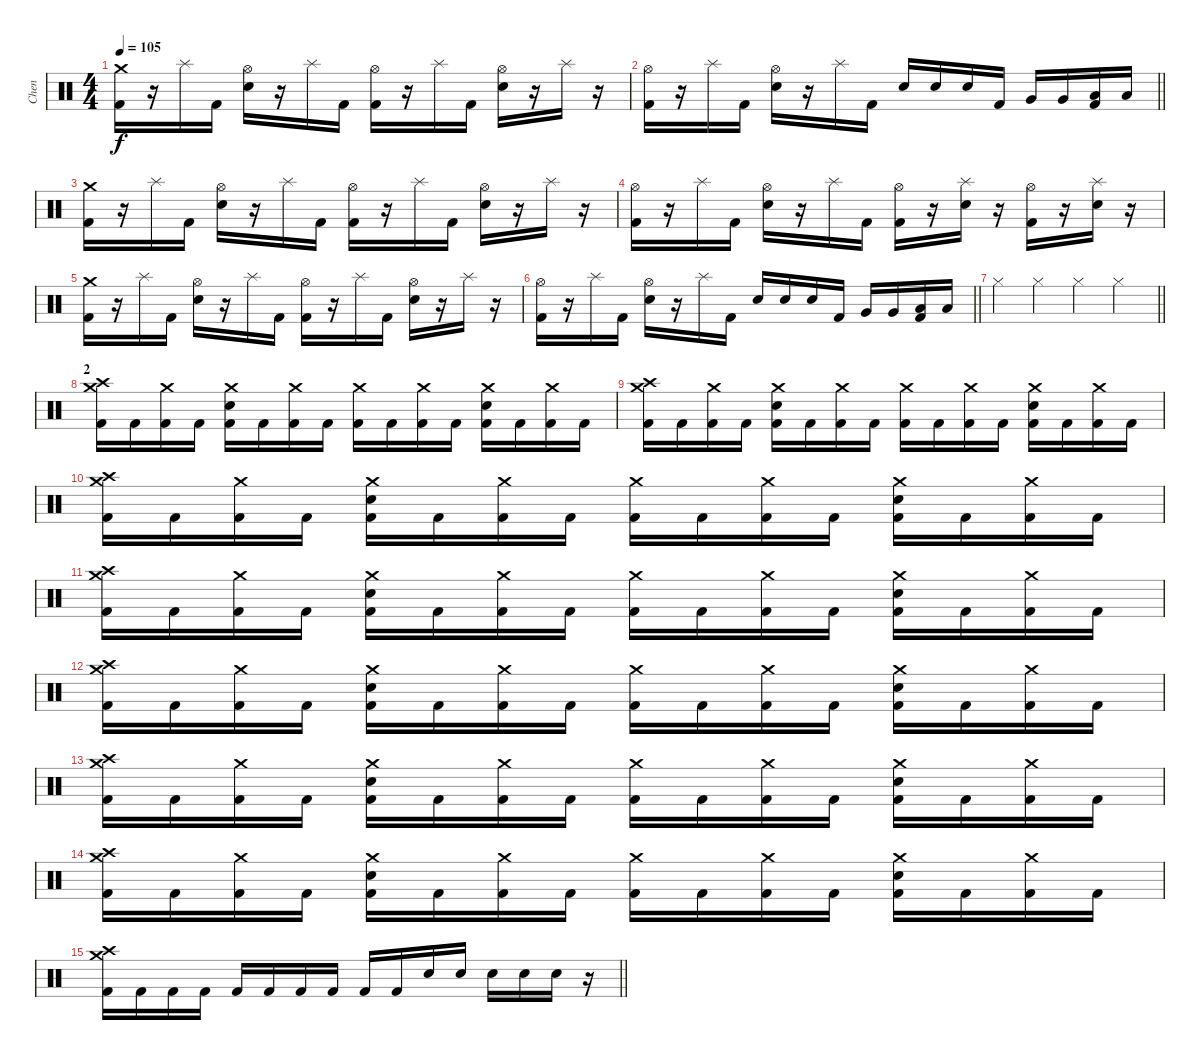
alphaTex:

\track ("Chen" "Chen") {instrument percussion}
\staff {score}
\articulation defaults
\ts (4 4)
\tempo 105
\clef neutral
\ks c
("Crash medium (hit)" "Kick (hit) 2").16{dy f} r.16 "Splash (hit)".16 "Kick (hit) 2".16 ("Hi-Hat (open)" "Electric Snare (hit)").16 r.16 "Splash (hit)".16 "Kick (hit) 2".16 ("Hi-Hat (open)" "Kick (hit) 2").16 r.16 "Splash (hit)".16 "Kick (hit) 2".16 ("Hi-Hat (open)" "Electric Snare (hit)").16 r.16 "Splash (hit)".16 r.16 |
\barLineRight lightlight
("Hi-Hat (open)" "Kick (hit) 2").16 r.16 "Splash (hit)".16 "Kick (hit) 2".16 ("Hi-Hat (open)" "Electric Snare (hit)").16 r.16 "Splash (hit)".16 "Kick (hit) 2".16 "Electric Snare (hit)".16 "Electric Snare (hit)".16 "Electric Snare (hit)".16 "Kick (hit) 2".16 "Very Low Tom (hit)".16 "Very Low Tom (hit)".16 ("Low Tom (hit)" "Kick (hit) 2").16 "Low Tom (hit)".16 |
("Crash medium (hit)" "Kick (hit) 2").16 r.16 "Splash (hit)".16 "Kick (hit) 2".16 ("Hi-Hat (open)" "Electric Snare (hit)").16 r.16 "Splash (hit)".16 "Kick (hit) 2".16 ("Hi-Hat (open)" "Kick (hit) 2").16 r.16 "Splash (hit)".16 "Kick (hit) 2".16 ("Hi-Hat (open)" "Electric Snare (hit)").16 r.16 "Splash (hit)".16 r.16 |
("Hi-Hat (open)" "Kick (hit) 2").16 r.16 "Splash (hit)".16 "Kick (hit) 2".16 ("Hi-Hat (open)" "Electric Snare (hit)").16 r.16 "Splash (hit)".16 "Kick (hit) 2".16 ("Hi-Hat (open)" "Kick (hit) 2").16 r.16 ("Splash (hit)" "Electric Snare (hit)").16 r.16 ("Hi-Hat (open)" "Kick (hit) 2").16 r.16 ("Splash (hit)" "Electric Snare (hit)").16 r.16 |
("Crash medium (hit)" "Kick (hit) 2").16 r.16 "Splash (hit)".16 "Kick (hit) 2".16 ("Hi-Hat (open)" "Electric Snare (hit)").16 r.16 "Splash (hit)".16 "Kick (hit) 2".16 ("Hi-Hat (open)" "Kick (hit) 2").16 r.16 "Splash (hit)".16 "Kick (hit) 2".16 ("Hi-Hat (open)" "Electric Snare (hit)").16 r.16 "Splash (hit)".16 r.16 |
\barLineRight lightlight
("Hi-Hat (open)" "Kick (hit) 2").16 r.16 "Splash (hit)".16 "Kick (hit) 2".16 ("Hi-Hat (open)" "Electric Snare (hit)").16 r.16 "Splash (hit)".16 "Kick (hit) 2".16 "Electric Snare (hit)".16 "Electric Snare (hit)".16 "Electric Snare (hit)".16 "Kick (hit) 2".16 "Very Low Tom (hit)".16 "Very Low Tom (hit)".16 ("Low Tom (hit)" "Kick (hit) 2").16 "Low Tom (hit)".16 |
\barLineRight lightlight "Hi-Hat (closed)".4 "Hi-Hat (closed)".4 "Hi-Hat (closed)".4 "Hi-Hat (closed)".4
|
\section ("" "2")
("Crash medium (hit)" "Crash high (hit)" "Kick (hit) 2").16 "Kick (hit) 2".16 ("Crash medium (hit)" "Kick (hit) 2").16 "Kick (hit) 2".16 ("Crash medium (hit)" "Electric Snare (hit)" "Kick (hit) 2").16 "Kick (hit) 2".16 ("Crash medium (hit)" "Kick (hit) 2").16 "Kick (hit) 2".16 ("Crash medium (hit)" "Kick (hit) 2").16 "Kick (hit) 2".16 ("Crash medium (hit)" "Kick (hit) 2").16 "Kick (hit) 2".16 ("Crash medium (hit)" "Electric Snare (hit)" "Kick (hit) 2").16 "Kick (hit) 2".16 ("Crash medium (hit)" "Kick (hit) 2").16 "Kick (hit) 2".16 |
("Crash medium (hit)" "Crash high (hit)" "Kick (hit) 2").16 "Kick (hit) 2".16 ("Crash medium (hit)" "Kick (hit) 2").16 "Kick (hit) 2".16 ("Crash medium (hit)" "Electric Snare (hit)" "Kick (hit) 2").16 "Kick (hit) 2".16 ("Crash medium (hit)" "Kick (hit) 2").16 "Kick (hit) 2".16 ("Crash medium (hit)" "Kick (hit) 2").16 "Kick (hit) 2".16 ("Crash medium (hit)" "Kick (hit) 2").16 "Kick (hit) 2".16 ("Crash medium (hit)" "Electric Snare (hit)" "Kick (hit) 2").16 "Kick (hit) 2".16 ("Crash medium (hit)" "Kick (hit) 2").16 "Kick (hit) 2".16 |
("Crash medium (hit)" "Crash high (hit)" "Kick (hit) 2").16 "Kick (hit) 2".16 ("Crash medium (hit)" "Kick (hit) 2").16 "Kick (hit) 2".16 ("Crash medium (hit)" "Electric Snare (hit)" "Kick (hit) 2").16 "Kick (hit) 2".16 ("Crash medium (hit)" "Kick (hit) 2").16 "Kick (hit) 2".16 ("Crash medium (hit)" "Kick (hit) 2").16 "Kick (hit) 2".16 ("Crash medium (hit)" "Kick (hit) 2").16 "Kick (hit) 2".16 ("Crash medium (hit)" "Electric Snare (hit)" "Kick (hit) 2").16 "Kick (hit) 2".16 ("Crash medium (hit)" "Kick (hit) 2").16 "Kick (hit) 2".16 |
("Crash medium (hit)" "Crash high (hit)" "Kick (hit) 2").16 "Kick (hit) 2".16 ("Crash medium (hit)" "Kick (hit) 2").16 "Kick (hit) 2".16 ("Crash medium (hit)" "Electric Snare (hit)" "Kick (hit) 2").16 "Kick (hit) 2".16 ("Crash medium (hit)" "Kick (hit) 2").16 "Kick (hit) 2".16 ("Crash medium (hit)" "Kick (hit) 2").16 "Kick (hit) 2".16 ("Crash medium (hit)" "Kick (hit) 2").16 "Kick (hit) 2".16 ("Crash medium (hit)" "Electric Snare (hit)" "Kick (hit) 2").16 "Kick (hit) 2".16 ("Crash medium (hit)" "Kick (hit) 2").16 "Kick (hit) 2".16 |
("Crash medium (hit)" "Crash high (hit)" "Kick (hit) 2").16 "Kick (hit) 2".16 ("Crash medium (hit)" "Kick (hit) 2").16 "Kick (hit) 2".16 ("Crash medium (hit)" "Electric Snare (hit)" "Kick (hit) 2").16 "Kick (hit) 2".16 ("Crash medium (hit)" "Kick (hit) 2").16 "Kick (hit) 2".16 ("Crash medium (hit)" "Kick (hit) 2").16 "Kick (hit) 2".16 ("Crash medium (hit)" "Kick (hit) 2").16 "Kick (hit) 2".16 ("Crash medium (hit)" "Electric Snare (hit)" "Kick (hit) 2").16 "Kick (hit) 2".16 ("Crash medium (hit)" "Kick (hit) 2").16 "Kick (hit) 2".16 |
("Crash medium (hit)" "Crash high (hit)" "Kick (hit) 2").16 "Kick (hit) 2".16 ("Crash medium (hit)" "Kick (hit) 2").16 "Kick (hit) 2".16 ("Crash medium (hit)" "Electric Snare (hit)" "Kick (hit) 2").16 "Kick (hit) 2".16 ("Crash medium (hit)" "Kick (hit) 2").16 "Kick (hit) 2".16 ("Crash medium (hit)" "Kick (hit) 2").16 "Kick (hit) 2".16 ("Crash medium (hit)" "Kick (hit) 2").16 "Kick (hit) 2".16 ("Crash medium (hit)" "Electric Snare (hit)" "Kick (hit) 2").16 "Kick (hit) 2".16 ("Crash medium (hit)" "Kick (hit) 2").16 "Kick (hit) 2".16 |
("Crash medium (hit)" "Crash high (hit)" "Kick (hit) 2").16 "Kick (hit) 2".16 ("Crash medium (hit)" "Kick (hit) 2").16 "Kick (hit) 2".16 ("Crash medium (hit)" "Electric Snare (hit)" "Kick (hit) 2").16 "Kick (hit) 2".16 ("Crash medium (hit)" "Kick (hit) 2").16 "Kick (hit) 2".16 ("Crash medium (hit)" "Kick (hit) 2").16 "Kick (hit) 2".16 ("Crash medium (hit)" "Kick (hit) 2").16 "Kick (hit) 2".16 ("Crash medium (hit)" "Electric Snare (hit)" "Kick (hit) 2").16 "Kick (hit) 2".16 ("Crash medium (hit)" "Kick (hit) 2").16 "Kick (hit) 2".16 |
\barLineRight lightlight
("Crash medium (hit)" "Crash high (hit)" "Kick (hit) 2").16 "Kick (hit) 2".16 "Kick (hit) 2".16 "Kick (hit) 2".16 "Kick (hit) 2".16 "Kick (hit) 2".16 "Kick (hit) 2".16 "Kick (hit) 2".16 "Kick (hit) 2".16 "Kick (hit) 2".16 "Electric Snare (hit)".16 "Electric Snare (hit)".16 "Electric Snare (hit)".16 "Electric Snare (hit)".16 "Electric Snare (hit)".16 r.16
